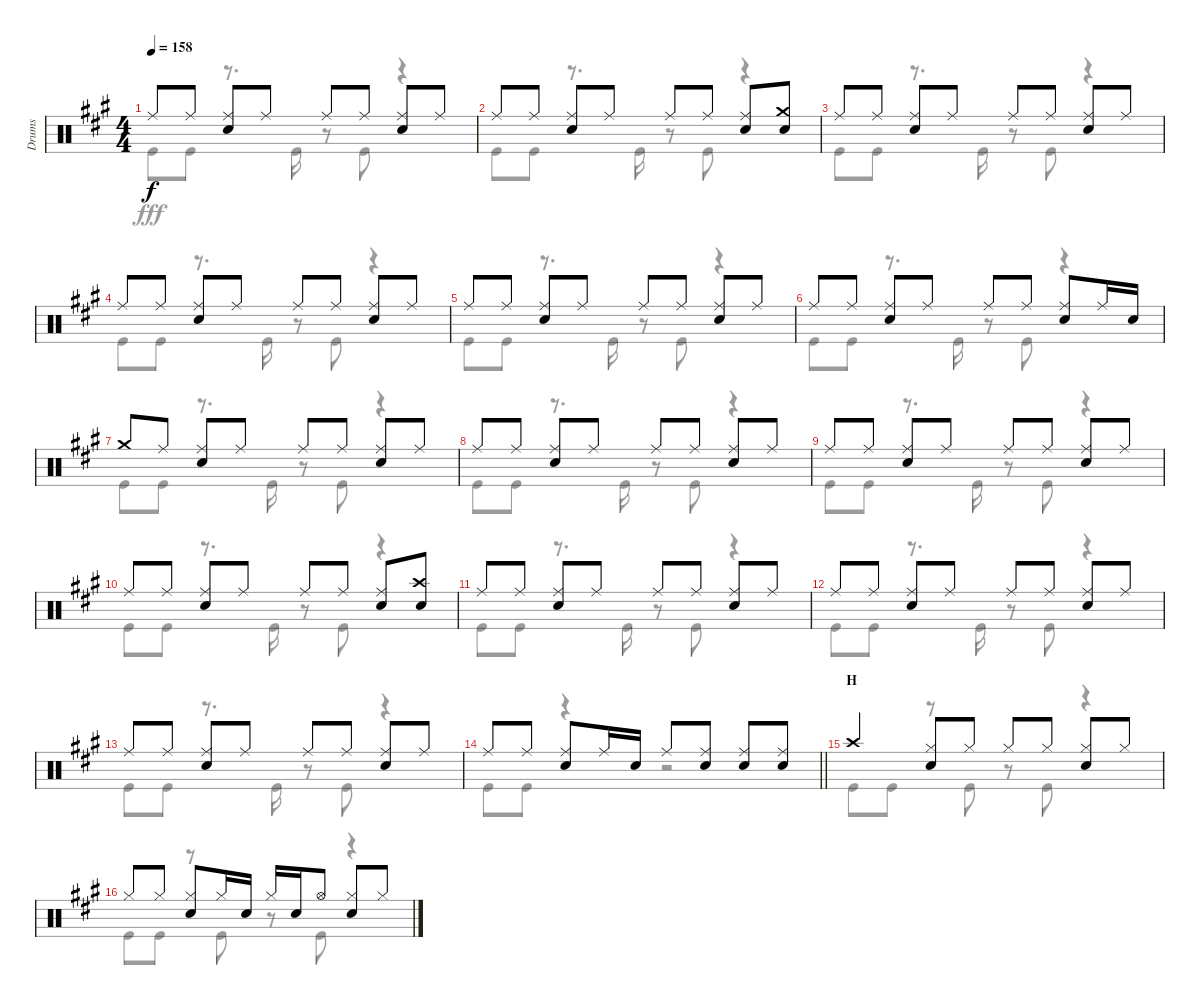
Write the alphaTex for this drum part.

\track ("Drums" "Drums") {instrument percussion}
\staff {score}
\articulation defaults
\voice
\ts (4 4)
\tempo 158
\clef neutral
\ks a "Ride (middle)".8{dy f} "Ride (middle)".8
("Ride (middle)" "Snare (hit) 2").8 "Ride (middle)".8 "Ride (middle)".8 "Ride (middle)".8 ("Ride (middle)" "Snare (hit) 2").8 "Ride (middle)".8 |
"Ride (middle)".8 "Ride (middle)".8 ("Ride (middle)" "Snare (hit) 2").8 "Ride (middle)".8 "Ride (middle)".8 "Ride (middle)".8 ("Ride (middle)" "Snare (hit) 2").8 ("Crash medium (hit)" "Snare (hit) 2").8 |
"Ride (middle)".8 "Ride (middle)".8 ("Ride (middle)" "Snare (hit) 2").8 "Ride (middle)".8 "Ride (middle)".8 "Ride (middle)".8 ("Ride (middle)" "Snare (hit) 2").8 "Ride (middle)".8 |
"Ride (middle)".8 "Ride (middle)".8 ("Ride (middle)" "Snare (hit) 2").8 "Ride (middle)".8 "Ride (middle)".8 "Ride (middle)".8 ("Ride (middle)" "Snare (hit) 2").8 "Ride (middle)".8 |
"Ride (middle)".8 "Ride (middle)".8 ("Ride (middle)" "Snare (hit) 2").8 "Ride (middle)".8 "Ride (middle)".8 "Ride (middle)".8 ("Ride (middle)" "Snare (hit) 2").8 "Ride (middle)".8 |
"Ride (middle)".8 "Ride (middle)".8 ("Ride (middle)" "Snare (hit) 2").8 "Ride (middle)".8 "Ride (middle)".8 "Ride (middle)".8 ("Ride (middle)" "Snare (hit) 2").8 "Ride (middle)".16 "Snare (hit) 2".16 |
"Crash medium (hit)".8 "Ride (middle)".8 ("Ride (middle)" "Snare (hit) 2").8 "Ride (middle)".8 "Ride (middle)".8 "Ride (middle)".8 ("Ride (middle)" "Snare (hit) 2").8 "Ride (middle)".8 |
"Ride (middle)".8 "Ride (middle)".8 ("Ride (middle)" "Snare (hit) 2").8 "Ride (middle)".8 "Ride (middle)".8 "Ride (middle)".8 ("Ride (middle)" "Snare (hit) 2").8 "Ride (middle)".8 |
"Ride (middle)".8 "Ride (middle)".8 ("Ride (middle)" "Snare (hit) 2").8 "Ride (middle)".8 "Ride (middle)".8 "Ride (middle)".8 ("Ride (middle)" "Snare (hit) 2").8 "Ride (middle)".8 |
"Ride (middle)".8 "Ride (middle)".8 ("Ride (middle)" "Snare (hit) 2").8 "Ride (middle)".8 "Ride (middle)".8 "Ride (middle)".8 ("Ride (middle)" "Snare (hit) 2").8 ("Crash high (hit)" "Snare (hit) 2").8 |
"Ride (middle)".8 "Ride (middle)".8 ("Ride (middle)" "Snare (hit) 2").8 "Ride (middle)".8 "Ride (middle)".8 "Ride (middle)".8 ("Ride (middle)" "Snare (hit) 2").8 "Ride (middle)".8 |
"Ride (middle)".8 "Ride (middle)".8 ("Ride (middle)" "Snare (hit) 2").8 "Ride (middle)".8 "Ride (middle)".8 "Ride (middle)".8 ("Ride (middle)" "Snare (hit) 2").8 "Ride (middle)".8 |
"Ride (middle)".8 "Ride (middle)".8 ("Ride (middle)" "Snare (hit) 2").8 "Ride (middle)".8 "Ride (middle)".8 "Ride (middle)".8 ("Ride (middle)" "Snare (hit) 2").8 "Ride (middle)".8 |
\barLineRight lightlight "Ride (middle)".8 "Ride (middle)".8
("Ride (middle)" "Snare (hit) 2").8 "Ride (middle)".16 "Snare (hit) 2".16 "Ride (middle)".8 ("Ride (middle)" "Snare (hit) 2").8 ("Ride (middle)" "Snare (hit) 2").8 ("Ride (middle)" "Snare (hit) 2").8 |
\section ("" "H")
"Crash high (hit)".4 ("Hi-Hat (closed)" "Snare (hit) 2").8 "Hi-Hat (closed)".8 "Hi-Hat (closed)".8 "Hi-Hat (closed)".8 ("Hi-Hat (closed)" "Snare (hit) 2").8 "Hi-Hat (closed)".8 |
"Hi-Hat (closed)".8 "Hi-Hat (closed)".8 ("Hi-Hat (closed)" "Snare (hit) 2").8 "Hi-Hat (closed)".16 "Snare (hit) 2".16 "Hi-Hat (closed)".16 "Snare (hit) 2".16 "Hi-Hat (open)".8 ("Hi-Hat (closed)" "Snare (hit) 2").8 "Hi-Hat (closed)".8
\voice
\clef neutral
\ottava regular
\simile none
\ks a "Kick (hit)".8{dy fff} "Kick (hit)".8
r.8{d} "Kick (hit)".16 r.8 "Kick (hit)".8 r.4 |
"Kick (hit)".8 "Kick (hit)".8 r.8{d} "Kick (hit)".16 r.8 "Kick (hit)".8 r.4 |
"Kick (hit)".8 "Kick (hit)".8 r.8{d} "Kick (hit)".16 r.8 "Kick (hit)".8 r.4 |
"Kick (hit)".8 "Kick (hit)".8 r.8{d} "Kick (hit)".16 r.8 "Kick (hit)".8 r.4 |
"Kick (hit)".8 "Kick (hit)".8 r.8{d} "Kick (hit)".16 r.8 "Kick (hit)".8 r.4 |
"Kick (hit)".8 "Kick (hit)".8 r.8{d} "Kick (hit)".16 r.8 "Kick (hit)".8 r.4 |
"Kick (hit)".8 "Kick (hit)".8 r.8{d} "Kick (hit)".16 r.8 "Kick (hit)".8 r.4 |
"Kick (hit)".8 "Kick (hit)".8 r.8{d} "Kick (hit)".16 r.8 "Kick (hit)".8 r.4 |
"Kick (hit)".8 "Kick (hit)".8 r.8{d} "Kick (hit)".16 r.8 "Kick (hit)".8 r.4 |
"Kick (hit)".8 "Kick (hit)".8 r.8{d} "Kick (hit)".16 r.8 "Kick (hit)".8 r.4 |
"Kick (hit)".8 "Kick (hit)".8 r.8{d} "Kick (hit)".16 r.8 "Kick (hit)".8 r.4 |
"Kick (hit)".8 "Kick (hit)".8 r.8{d} "Kick (hit)".16 r.8 "Kick (hit)".8 r.4 |
"Kick (hit)".8 "Kick (hit)".8 r.8{d} "Kick (hit)".16 r.8 "Kick (hit)".8 r.4 |
\barLineRight lightlight "Kick (hit)".8 "Kick (hit)".8
r.4 r.2 |
"Kick (hit)".8 "Kick (hit)".8 r.8 "Kick (hit)".8 r.8 "Kick (hit)".8 r.4 |
"Kick (hit)".8 "Kick (hit)".8 r.8 "Kick (hit)".8 r.8 "Kick (hit)".8 r.4
